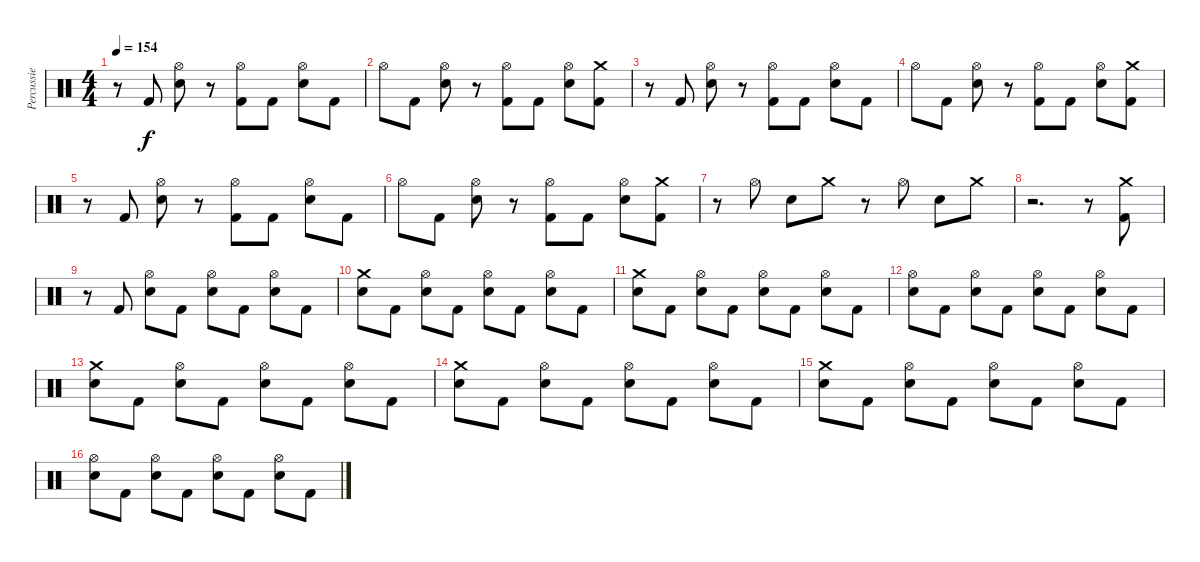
\track ("Percussie" "Percussie") {instrument percussion}
\staff {score}
\articulation defaults
\ts (4 4)
\tempo 154
\clef neutral
\ks c
r.8{dy f} "Kick (hit) 2".8 ("Hi-Hat (open)" "Snare (hit) 2").8 r.8 ("Hi-Hat (open)" "Kick (hit) 2").8 "Kick (hit) 2".8 ("Hi-Hat (open)" "Snare (hit) 2").8 "Kick (hit) 2".8 |
"Hi-Hat (open)".8 "Kick (hit) 2".8 ("Hi-Hat (open)" "Snare (hit) 2").8 r.8 ("Hi-Hat (open)" "Kick (hit) 2").8 "Kick (hit) 2".8 ("Hi-Hat (open)" "Snare (hit) 2").8 ("Crash medium (hit)" "Kick (hit) 2").8 |
r.8 "Kick (hit) 2".8 ("Hi-Hat (open)" "Snare (hit) 2").8 r.8 ("Hi-Hat (open)" "Kick (hit) 2").8 "Kick (hit) 2".8 ("Hi-Hat (open)" "Snare (hit) 2").8 "Kick (hit) 2".8 |
"Hi-Hat (open)".8 "Kick (hit) 2".8 ("Hi-Hat (open)" "Snare (hit) 2").8 r.8 ("Hi-Hat (open)" "Kick (hit) 2").8 "Kick (hit) 2".8 ("Hi-Hat (open)" "Snare (hit) 2").8 ("Crash medium (hit)" "Kick (hit) 2").8 |
r.8 "Kick (hit) 2".8 ("Hi-Hat (open)" "Snare (hit) 2").8 r.8 ("Hi-Hat (open)" "Kick (hit) 2").8 "Kick (hit) 2".8 ("Hi-Hat (open)" "Snare (hit) 2").8 "Kick (hit) 2".8 |
"Hi-Hat (open)".8 "Kick (hit) 2".8 ("Hi-Hat (open)" "Snare (hit) 2").8 r.8 ("Hi-Hat (open)" "Kick (hit) 2").8 "Kick (hit) 2".8 ("Hi-Hat (open)" "Snare (hit) 2").8 ("Crash medium (hit)" "Kick (hit) 2").8 |
r.8 "Hi-Hat (open)".8 "Snare (hit) 2".8 "Crash medium (hit)".8 r.8 "Hi-Hat (open)".8 "Snare (hit) 2".8 "Crash medium (hit)".8 |
r.2{d} r.8 ("Crash medium (hit)" "Kick (hit) 2").8 |
r.8 "Kick (hit) 2".8 ("Hi-Hat (open)" "Snare (hit) 2").8 "Kick (hit) 2".8 ("Hi-Hat (open)" "Snare (hit) 2").8 "Kick (hit) 2".8 ("Hi-Hat (open)" "Snare (hit) 2").8 "Kick (hit) 2".8 |
("Crash medium (hit)" "Snare (hit) 2").8 "Kick (hit) 2".8 ("Hi-Hat (open)" "Snare (hit) 2").8 "Kick (hit) 2".8 ("Hi-Hat (open)" "Snare (hit) 2").8 "Kick (hit) 2".8 ("Hi-Hat (open)" "Snare (hit) 2").8 "Kick (hit) 2".8 |
("Crash medium (hit)" "Snare (hit) 2").8 "Kick (hit) 2".8 ("Hi-Hat (open)" "Snare (hit) 2").8 "Kick (hit) 2".8 ("Hi-Hat (open)" "Snare (hit) 2").8 "Kick (hit) 2".8 ("Hi-Hat (open)" "Snare (hit) 2").8 "Kick (hit) 2".8 |
("Hi-Hat (open)" "Snare (hit) 2").8 "Kick (hit) 2".8 ("Hi-Hat (open)" "Snare (hit) 2").8 "Kick (hit) 2".8 ("Hi-Hat (open)" "Snare (hit) 2").8 "Kick (hit) 2".8 ("Hi-Hat (open)" "Snare (hit) 2").8 "Kick (hit) 2".8 |
("Crash medium (hit)" "Snare (hit) 2").8 "Kick (hit) 2".8 ("Hi-Hat (open)" "Snare (hit) 2").8 "Kick (hit) 2".8 ("Hi-Hat (open)" "Snare (hit) 2").8 "Kick (hit) 2".8 ("Hi-Hat (open)" "Snare (hit) 2").8 "Kick (hit) 2".8 |
("Crash medium (hit)" "Snare (hit) 2").8 "Kick (hit) 2".8 ("Hi-Hat (open)" "Snare (hit) 2").8 "Kick (hit) 2".8 ("Hi-Hat (open)" "Snare (hit) 2").8 "Kick (hit) 2".8 ("Hi-Hat (open)" "Snare (hit) 2").8 "Kick (hit) 2".8 |
("Crash medium (hit)" "Snare (hit) 2").8 "Kick (hit) 2".8 ("Hi-Hat (open)" "Snare (hit) 2").8 "Kick (hit) 2".8 ("Hi-Hat (open)" "Snare (hit) 2").8 "Kick (hit) 2".8 ("Hi-Hat (open)" "Snare (hit) 2").8 "Kick (hit) 2".8 |
("Hi-Hat (open)" "Snare (hit) 2").8 "Kick (hit) 2".8 ("Hi-Hat (open)" "Snare (hit) 2").8 "Kick (hit) 2".8 ("Hi-Hat (open)" "Snare (hit) 2").8 "Kick (hit) 2".8 ("Hi-Hat (open)" "Snare (hit) 2").8 "Kick (hit) 2".8
